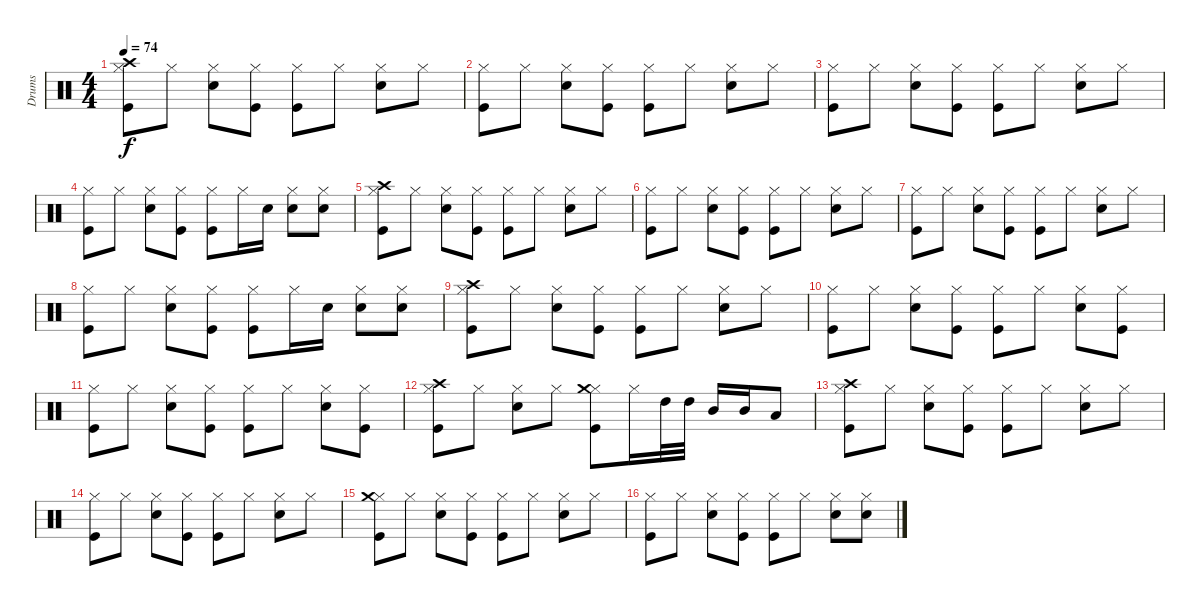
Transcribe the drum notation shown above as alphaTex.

\track ("Drums" "Drums") {instrument percussion}
\staff {score}
\articulation defaults
\ts (4 4)
\tempo 74
\clef neutral
\ks c
("Kick (hit)" "Hi-Hat (closed)" "Crash high (hit)").8{dy f} "Hi-Hat (closed)".8 ("Electric Snare (hit)" "Hi-Hat (closed)").8 ("Kick (hit)" "Hi-Hat (closed)").8 ("Kick (hit)" "Hi-Hat (closed)").8 "Hi-Hat (closed)".8 ("Electric Snare (hit)" "Hi-Hat (closed)").8 "Hi-Hat (closed)".8 |
("Kick (hit)" "Hi-Hat (closed)").8 "Hi-Hat (closed)".8 ("Electric Snare (hit)" "Hi-Hat (closed)").8 ("Kick (hit)" "Hi-Hat (closed)").8 ("Kick (hit)" "Hi-Hat (closed)").8 "Hi-Hat (closed)".8 ("Electric Snare (hit)" "Hi-Hat (closed)").8 "Hi-Hat (closed)".8 |
("Kick (hit)" "Hi-Hat (closed)").8 "Hi-Hat (closed)".8 ("Electric Snare (hit)" "Hi-Hat (closed)").8 ("Kick (hit)" "Hi-Hat (closed)").8 ("Kick (hit)" "Hi-Hat (closed)").8 "Hi-Hat (closed)".8 ("Electric Snare (hit)" "Hi-Hat (closed)").8 "Hi-Hat (closed)".8 |
("Kick (hit)" "Hi-Hat (closed)").8 "Hi-Hat (closed)".8 ("Electric Snare (hit)" "Hi-Hat (closed)").8 ("Kick (hit)" "Hi-Hat (closed)").8 ("Kick (hit)" "Hi-Hat (closed)").8 "Hi-Hat (closed)".16 "Electric Snare (hit)".16 ("Electric Snare (hit)" "Hi-Hat (closed)").8 ("Electric Snare (hit)" "Hi-Hat (closed)").8 |
("Kick (hit)" "Hi-Hat (closed)" "Crash high (hit)").8 "Hi-Hat (closed)".8 ("Electric Snare (hit)" "Hi-Hat (closed)").8 ("Kick (hit)" "Hi-Hat (closed)").8 ("Kick (hit)" "Hi-Hat (closed)").8 "Hi-Hat (closed)".8 ("Electric Snare (hit)" "Hi-Hat (closed)").8 "Hi-Hat (closed)".8 |
("Kick (hit)" "Hi-Hat (closed)").8 "Hi-Hat (closed)".8 ("Electric Snare (hit)" "Hi-Hat (closed)").8 ("Kick (hit)" "Hi-Hat (closed)").8 ("Kick (hit)" "Hi-Hat (closed)").8 "Hi-Hat (closed)".8 ("Electric Snare (hit)" "Hi-Hat (closed)").8 "Hi-Hat (closed)".8 |
("Kick (hit)" "Hi-Hat (closed)").8 "Hi-Hat (closed)".8 ("Electric Snare (hit)" "Hi-Hat (closed)").8 ("Kick (hit)" "Hi-Hat (closed)").8 ("Kick (hit)" "Hi-Hat (closed)").8 "Hi-Hat (closed)".8 ("Electric Snare (hit)" "Hi-Hat (closed)").8 "Hi-Hat (closed)".8 |
("Kick (hit)" "Hi-Hat (closed)").8 "Hi-Hat (closed)".8 ("Electric Snare (hit)" "Hi-Hat (closed)").8 ("Kick (hit)" "Hi-Hat (closed)").8 ("Kick (hit)" "Hi-Hat (closed)").8 "Hi-Hat (closed)".16 "Electric Snare (hit)".16 ("Electric Snare (hit)" "Hi-Hat (closed)").8 ("Electric Snare (hit)" "Hi-Hat (closed)").8 |
("Kick (hit)" "Hi-Hat (closed)" "Crash high (hit)").8 "Hi-Hat (closed)".8 ("Electric Snare (hit)" "Hi-Hat (closed)").8 ("Kick (hit)" "Hi-Hat (closed)").8 ("Kick (hit)" "Hi-Hat (closed)").8 "Hi-Hat (closed)".8 ("Electric Snare (hit)" "Hi-Hat (closed)").8 "Hi-Hat (closed)".8 |
("Kick (hit)" "Hi-Hat (closed)").8 "Hi-Hat (closed)".8 ("Electric Snare (hit)" "Hi-Hat (closed)").8 ("Kick (hit)" "Hi-Hat (closed)").8 ("Kick (hit)" "Hi-Hat (closed)").8 "Hi-Hat (closed)".8 ("Electric Snare (hit)" "Hi-Hat (closed)").8 ("Kick (hit)" "Hi-Hat (closed)").8 |
("Kick (hit)" "Hi-Hat (closed)").8 "Hi-Hat (closed)".8 ("Electric Snare (hit)" "Hi-Hat (closed)").8 ("Kick (hit)" "Hi-Hat (closed)").8 ("Kick (hit)" "Hi-Hat (closed)").8 "Hi-Hat (closed)".8 ("Electric Snare (hit)" "Hi-Hat (closed)").8 ("Kick (hit)" "Hi-Hat (closed)").8 |
("Kick (hit)" "Hi-Hat (closed)" "Crash high (hit)").8 "Hi-Hat (closed)".8 ("Electric Snare (hit)" "Hi-Hat (closed)").8 "Hi-Hat (closed)".8 ("Kick (hit)" "Hi-Hat (closed)" "Crash medium (hit)").8 "Hi-Hat (closed)".16 "High Tom (hit)".32 "High Tom (hit)".32 "Mid Tom (hit)".16 "Mid Tom (hit)".16 "Low Tom (hit)".8 |
("Kick (hit)" "Hi-Hat (closed)" "Crash high (hit)").8 "Hi-Hat (closed)".8 ("Electric Snare (hit)" "Hi-Hat (closed)").8 ("Kick (hit)" "Hi-Hat (closed)").8 ("Kick (hit)" "Hi-Hat (closed)").8 "Hi-Hat (closed)".8 ("Electric Snare (hit)" "Hi-Hat (closed)").8 "Hi-Hat (closed)".8 |
("Kick (hit)" "Hi-Hat (closed)").8 "Hi-Hat (closed)".8 ("Electric Snare (hit)" "Hi-Hat (closed)").8 ("Kick (hit)" "Hi-Hat (closed)").8 ("Kick (hit)" "Hi-Hat (closed)").8 "Hi-Hat (closed)".8 ("Electric Snare (hit)" "Hi-Hat (closed)").8 "Hi-Hat (closed)".8 |
("Kick (hit)" "Hi-Hat (closed)" "Crash medium (hit)").8 "Hi-Hat (closed)".8 ("Electric Snare (hit)" "Hi-Hat (closed)").8 ("Kick (hit)" "Hi-Hat (closed)").8 ("Kick (hit)" "Hi-Hat (closed)").8 "Hi-Hat (closed)".8 ("Electric Snare (hit)" "Hi-Hat (closed)").8 "Hi-Hat (closed)".8 |
("Kick (hit)" "Hi-Hat (closed)").8 "Hi-Hat (closed)".8 ("Electric Snare (hit)" "Hi-Hat (closed)").8 ("Kick (hit)" "Hi-Hat (closed)").8 ("Kick (hit)" "Hi-Hat (closed)").8 "Hi-Hat (closed)".8 ("Electric Snare (hit)" "Hi-Hat (closed)").8 ("Electric Snare (hit)" "Hi-Hat (closed)").8
